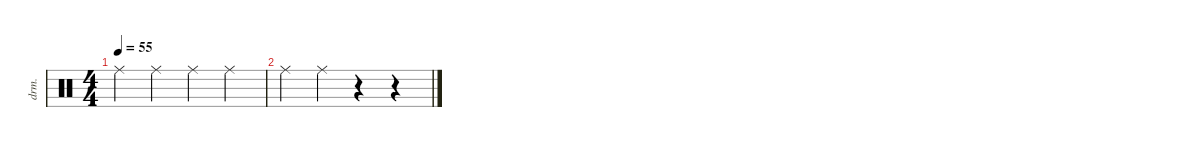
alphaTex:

\defaultSystemsLayout 4
\hideDynamics
\bracketExtendMode nobrackets
\track ("Drumkit" "drm.") {instrument percussion}
\staff {score}
\articulation defaults
\ts (4 4)
\tempo 55
\clef neutral
\ks c "Ride (middle)".4{dy mf} "Ride (middle)".4 "Ride (middle)".4 "Ride (middle)".4
|
"Ride (middle)".4 "Ride (middle)".4 r.4 r.4
